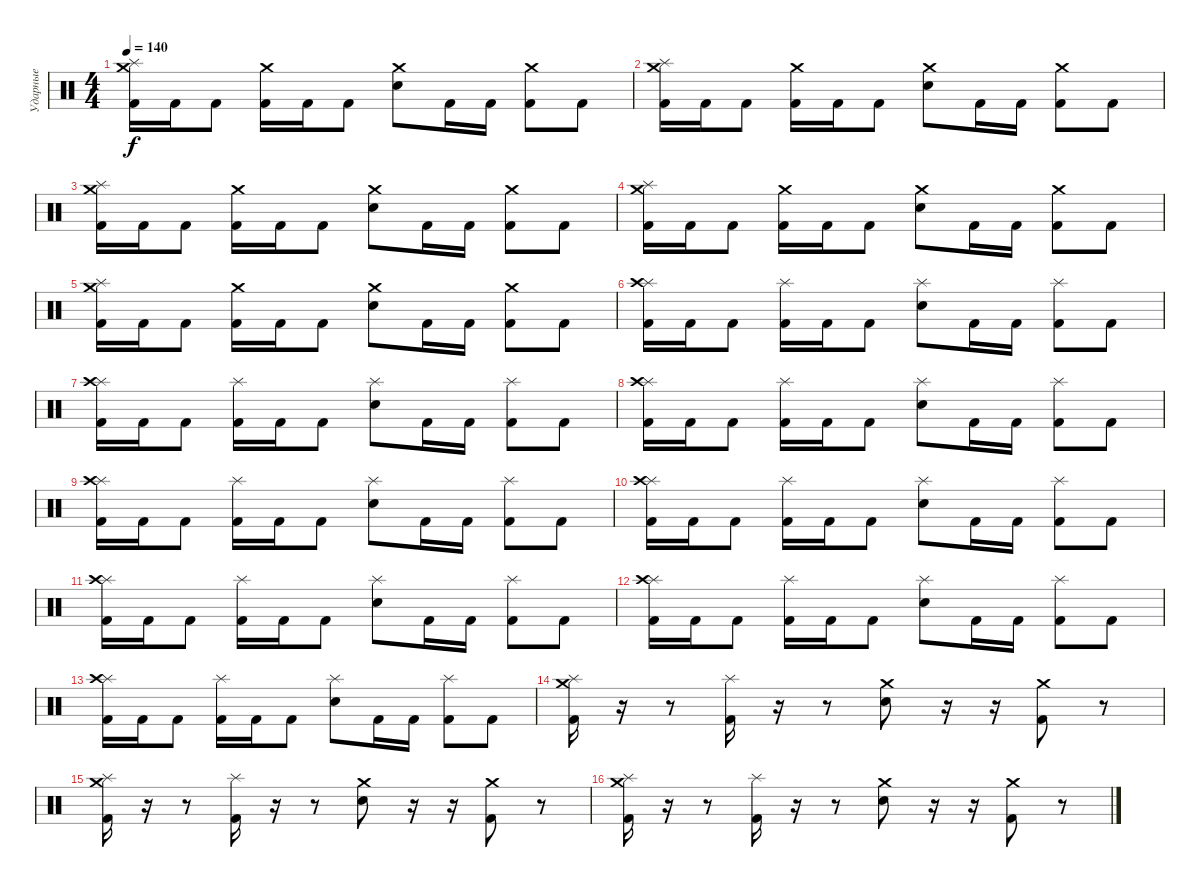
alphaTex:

\track ("Ударные" "Ударные") {instrument percussion}
\staff {score}
\articulation defaults
\ts (4 4)
\tempo 140
\clef neutral
\ks c
("Crash medium (hit)" "Splash (hit)" "Kick (hit) 2").16{dy f} "Kick (hit) 2".16 "Kick (hit) 2".8 ("Crash medium (hit)" "Kick (hit) 2").16 "Kick (hit) 2".16 "Kick (hit) 2".8 ("Crash medium (hit)" "Electric Snare (hit)").8 "Kick (hit) 2".16 "Kick (hit) 2".16 ("Crash medium (hit)" "Kick (hit) 2").8 "Kick (hit) 2".8 |
("Crash medium (hit)" "Splash (hit)" "Kick (hit) 2").16 "Kick (hit) 2".16 "Kick (hit) 2".8 ("Crash medium (hit)" "Kick (hit) 2").16 "Kick (hit) 2".16 "Kick (hit) 2".8 ("Crash medium (hit)" "Electric Snare (hit)").8 "Kick (hit) 2".16 "Kick (hit) 2".16 ("Crash medium (hit)" "Kick (hit) 2").8 "Kick (hit) 2".8 |
("Crash medium (hit)" "Splash (hit)" "Kick (hit) 2").16 "Kick (hit) 2".16 "Kick (hit) 2".8 ("Crash medium (hit)" "Kick (hit) 2").16 "Kick (hit) 2".16 "Kick (hit) 2".8 ("Crash medium (hit)" "Electric Snare (hit)").8 "Kick (hit) 2".16 "Kick (hit) 2".16 ("Crash medium (hit)" "Kick (hit) 2").8 "Kick (hit) 2".8 |
("Crash medium (hit)" "Splash (hit)" "Kick (hit) 2").16 "Kick (hit) 2".16 "Kick (hit) 2".8 ("Crash medium (hit)" "Kick (hit) 2").16 "Kick (hit) 2".16 "Kick (hit) 2".8 ("Crash medium (hit)" "Electric Snare (hit)").8 "Kick (hit) 2".16 "Kick (hit) 2".16 ("Crash medium (hit)" "Kick (hit) 2").8 "Kick (hit) 2".8 |
("Crash medium (hit)" "Splash (hit)" "Kick (hit) 2").16 "Kick (hit) 2".16 "Kick (hit) 2".8 ("Crash medium (hit)" "Kick (hit) 2").16 "Kick (hit) 2".16 "Kick (hit) 2".8 ("Crash medium (hit)" "Electric Snare (hit)").8 "Kick (hit) 2".16 "Kick (hit) 2".16 ("Crash medium (hit)" "Kick (hit) 2").8 "Kick (hit) 2".8 |
("Splash (hit)" "Crash high (hit)" "Kick (hit) 2").16 "Kick (hit) 2".16 "Kick (hit) 2".8 ("Splash (hit)" "Kick (hit) 2").16 "Kick (hit) 2".16 "Kick (hit) 2".8 ("Splash (hit)" "Electric Snare (hit)").8 "Kick (hit) 2".16 "Kick (hit) 2".16 ("Splash (hit)" "Kick (hit) 2").8 "Kick (hit) 2".8 |
("Splash (hit)" "Crash high (hit)" "Kick (hit) 2").16 "Kick (hit) 2".16 "Kick (hit) 2".8 ("Splash (hit)" "Kick (hit) 2").16 "Kick (hit) 2".16 "Kick (hit) 2".8 ("Splash (hit)" "Electric Snare (hit)").8 "Kick (hit) 2".16 "Kick (hit) 2".16 ("Splash (hit)" "Kick (hit) 2").8 "Kick (hit) 2".8 |
("Splash (hit)" "Crash high (hit)" "Kick (hit) 2").16 "Kick (hit) 2".16 "Kick (hit) 2".8 ("Splash (hit)" "Kick (hit) 2").16 "Kick (hit) 2".16 "Kick (hit) 2".8 ("Splash (hit)" "Electric Snare (hit)").8 "Kick (hit) 2".16 "Kick (hit) 2".16 ("Splash (hit)" "Kick (hit) 2").8 "Kick (hit) 2".8 |
("Splash (hit)" "Crash high (hit)" "Kick (hit) 2").16 "Kick (hit) 2".16 "Kick (hit) 2".8 ("Splash (hit)" "Kick (hit) 2").16 "Kick (hit) 2".16 "Kick (hit) 2".8 ("Splash (hit)" "Electric Snare (hit)").8 "Kick (hit) 2".16 "Kick (hit) 2".16 ("Splash (hit)" "Kick (hit) 2").8 "Kick (hit) 2".8 |
("Splash (hit)" "Crash high (hit)" "Kick (hit) 2").16 "Kick (hit) 2".16 "Kick (hit) 2".8 ("Splash (hit)" "Kick (hit) 2").16 "Kick (hit) 2".16 "Kick (hit) 2".8 ("Splash (hit)" "Electric Snare (hit)").8 "Kick (hit) 2".16 "Kick (hit) 2".16 ("Splash (hit)" "Kick (hit) 2").8 "Kick (hit) 2".8 |
("Splash (hit)" "Crash high (hit)" "Kick (hit) 2").16 "Kick (hit) 2".16 "Kick (hit) 2".8 ("Splash (hit)" "Kick (hit) 2").16 "Kick (hit) 2".16 "Kick (hit) 2".8 ("Splash (hit)" "Electric Snare (hit)").8 "Kick (hit) 2".16 "Kick (hit) 2".16 ("Splash (hit)" "Kick (hit) 2").8 "Kick (hit) 2".8 |
("Splash (hit)" "Crash high (hit)" "Kick (hit) 2").16 "Kick (hit) 2".16 "Kick (hit) 2".8 ("Splash (hit)" "Kick (hit) 2").16 "Kick (hit) 2".16 "Kick (hit) 2".8 ("Splash (hit)" "Electric Snare (hit)").8 "Kick (hit) 2".16 "Kick (hit) 2".16 ("Splash (hit)" "Kick (hit) 2").8 "Kick (hit) 2".8 |
("Splash (hit)" "Crash high (hit)" "Kick (hit) 2").16 "Kick (hit) 2".16 "Kick (hit) 2".8 ("Splash (hit)" "Kick (hit) 2").16 "Kick (hit) 2".16 "Kick (hit) 2".8 ("Splash (hit)" "Electric Snare (hit)").8 "Kick (hit) 2".16 "Kick (hit) 2".16 ("Splash (hit)" "Kick (hit) 2").8 "Kick (hit) 2".8 |
("Crash medium (hit)" "Splash (hit)" "Kick (hit) 2").16 r.16 r.8 ("Splash (hit)" "Kick (hit) 2").16 r.16 r.8 ("Crash medium (hit)" "Electric Snare (hit)").8 r.16 r.16 ("Crash medium (hit)" "Kick (hit) 2").8 r.8 |
("Crash medium (hit)" "Splash (hit)" "Kick (hit) 2").16 r.16 r.8 ("Splash (hit)" "Kick (hit) 2").16 r.16 r.8 ("Crash medium (hit)" "Electric Snare (hit)").8 r.16 r.16 ("Crash medium (hit)" "Kick (hit) 2").8 r.8 |
("Crash medium (hit)" "Splash (hit)" "Kick (hit) 2").16 r.16 r.8 ("Splash (hit)" "Kick (hit) 2").16 r.16 r.8 ("Crash medium (hit)" "Electric Snare (hit)").8 r.16 r.16 ("Crash medium (hit)" "Kick (hit) 2").8 r.8
